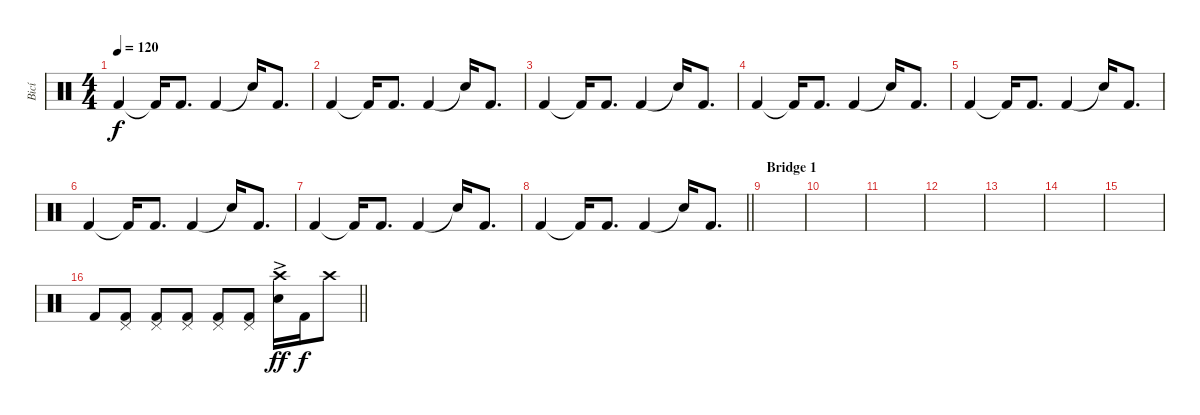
\track ("Bicí" "Bicí") {instrument percussion}
\staff {score}
\articulation defaults
\ts (4 4)
\tempo 120
\clef neutral
\ks c "Kick (hit) 2".4{dy f} "Kick (hit) 2"{t}.16 "Kick (hit) 2".8{d} "Kick (hit) 2".4 "Snare (hit)"{t}.16 "Kick (hit) 2".8{d}
|
"Kick (hit) 2".4 "Kick (hit) 2"{t}.16 "Kick (hit) 2".8{d} "Kick (hit) 2".4 "Snare (hit)"{t}.16 "Kick (hit) 2".8{d} |
"Kick (hit) 2".4 "Kick (hit) 2"{t}.16 "Kick (hit) 2".8{d} "Kick (hit) 2".4 "Snare (hit)"{t}.16 "Kick (hit) 2".8{d} |
"Kick (hit) 2".4 "Kick (hit) 2"{t}.16 "Kick (hit) 2".8{d} "Kick (hit) 2".4 "Snare (hit)"{t}.16 "Kick (hit) 2".8{d} |
"Kick (hit) 2".4 "Kick (hit) 2"{t}.16 "Kick (hit) 2".8{d} "Kick (hit) 2".4 "Snare (hit)"{t}.16 "Kick (hit) 2".8{d} |
"Kick (hit) 2".4 "Kick (hit) 2"{t}.16 "Kick (hit) 2".8{d} "Kick (hit) 2".4 "Snare (hit)"{t}.16 "Kick (hit) 2".8{d} |
"Kick (hit) 2".4 "Kick (hit) 2"{t}.16 "Kick (hit) 2".8{d} "Kick (hit) 2".4 "Snare (hit)"{t}.16 "Kick (hit) 2".8{d} |
\barLineRight lightlight "Kick (hit) 2".4 "Kick (hit) 2"{t}.16 "Kick (hit) 2".8{d} "Kick (hit) 2".4 "Snare (hit)"{t}.16 "Kick (hit) 2".8{d}
|
\section ("" "Bridge 1")
|
|
|
|
|
|
|
\barLineRight lightlight "Kick (hit) 2".8
("Pedal Hi-Hat (hit)" "Kick (hit) 2").8 ("Pedal Hi-Hat (hit)" "Kick (hit) 2").8 ("Pedal Hi-Hat (hit)" "Kick (hit) 2").8 ("Pedal Hi-Hat (hit)" "Kick (hit) 2").8 ("Pedal Hi-Hat (hit)" "Kick (hit) 2").8 ("Crash high (hit)"{ac} "Snare (hit) 2"{ac}).16{dy ff} "Kick (hit) 2".16{dy f} "Crash high (hit)".8
